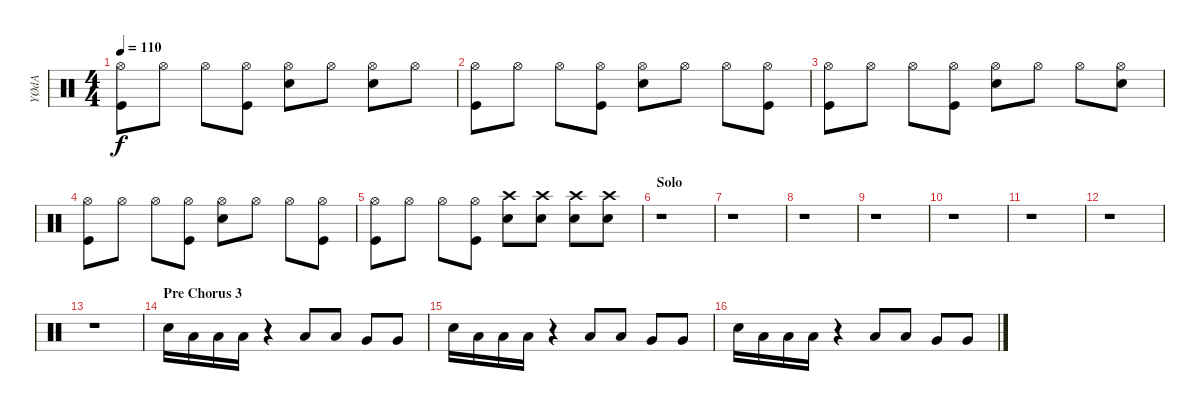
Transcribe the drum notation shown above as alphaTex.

\track ("YØdA" "YØdA") {instrument percussion}
\staff {score}
\articulation defaults
\ts (4 4)
\tempo 110
\clef neutral
\ks c
("Hi-Hat (open)" "Kick (hit)").8{dy f} "Hi-Hat (open)".8 "Hi-Hat (open)".8 ("Hi-Hat (open)" "Kick (hit)").8 ("Hi-Hat (open)" "Electric Snare (hit)").8 "Hi-Hat (open)".8 ("Hi-Hat (open)" "Electric Snare (hit)").8 "Hi-Hat (open)".8 |
("Hi-Hat (open)" "Kick (hit)").8 "Hi-Hat (open)".8 "Hi-Hat (open)".8 ("Hi-Hat (open)" "Kick (hit)").8 ("Hi-Hat (open)" "Electric Snare (hit)").8 "Hi-Hat (open)".8 "Hi-Hat (open)".8 ("Hi-Hat (open)" "Kick (hit)").8 |
("Hi-Hat (open)" "Kick (hit)").8 "Hi-Hat (open)".8 "Hi-Hat (open)".8 ("Hi-Hat (open)" "Kick (hit)").8 ("Hi-Hat (open)" "Electric Snare (hit)").8 "Hi-Hat (open)".8 "Hi-Hat (open)".8 ("Hi-Hat (open)" "Electric Snare (hit)").8 |
("Hi-Hat (open)" "Kick (hit)").8 "Hi-Hat (open)".8 "Hi-Hat (open)".8 ("Hi-Hat (open)" "Kick (hit)").8 ("Hi-Hat (open)" "Electric Snare (hit)").8 "Hi-Hat (open)".8 "Hi-Hat (open)".8 ("Hi-Hat (open)" "Kick (hit)").8 |
("Hi-Hat (open)" "Kick (hit)").8 "Hi-Hat (open)".8 "Hi-Hat (open)".8 ("Hi-Hat (open)" "Kick (hit)").8 ("Crash high (hit)" "Electric Snare (hit)").8 ("Crash high (hit)" "Electric Snare (hit)").8 ("Crash high (hit)" "Electric Snare (hit)").8 ("Crash high (hit)" "Electric Snare (hit)").8 |
\section ("" "Solo")
r.1 |
r.1 |
r.1 |
r.1 |
r.1 |
r.1 |
r.1 |
r.1 |
\section ("" "Pre Chorus 3")
"Electric Snare (hit)".16 "Low Tom (hit)".16 "Low Tom (hit)".16 "Low Tom (hit)".16 r.4 "Low Tom (hit)".8 "Low Tom (hit)".8 "Very Low Tom (hit)".8 "Very Low Tom (hit)".8 |
"Electric Snare (hit)".16 "Low Tom (hit)".16 "Low Tom (hit)".16 "Low Tom (hit)".16 r.4 "Low Tom (hit)".8 "Low Tom (hit)".8 "Very Low Tom (hit)".8 "Very Low Tom (hit)".8 |
"Electric Snare (hit)".16 "Low Tom (hit)".16 "Low Tom (hit)".16 "Low Tom (hit)".16 r.4 "Low Tom (hit)".8 "Low Tom (hit)".8 "Very Low Tom (hit)".8 "Very Low Tom (hit)".8
